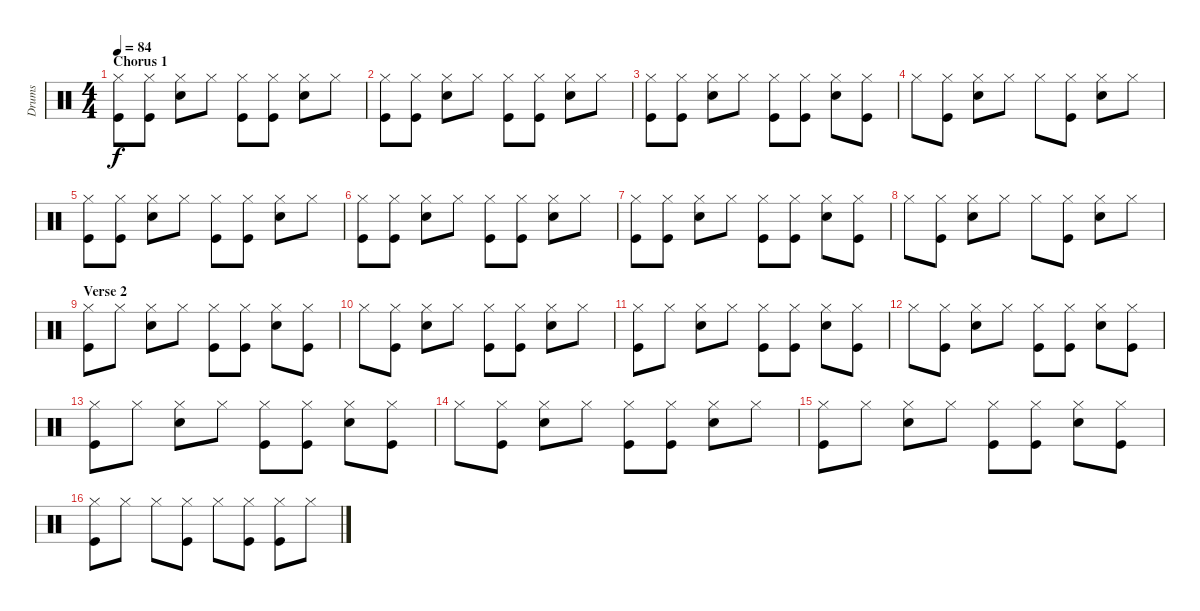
\track ("Drums" "Drums") {instrument percussion}
\staff {score}
\articulation defaults
\ts (4 4)
\section ("" "Chorus 1")
\tempo 84
\clef neutral
\ks c
("Hi-Hat (closed)" "Kick (hit)").8{dy f} ("Hi-Hat (closed)" "Kick (hit)").8 ("Hi-Hat (closed)" "Snare (hit) 2").8 "Hi-Hat (closed)".8 ("Hi-Hat (closed)" "Kick (hit)").8 ("Hi-Hat (closed)" "Kick (hit)").8 ("Hi-Hat (closed)" "Snare (hit) 2").8 "Hi-Hat (closed)".8 |
("Hi-Hat (closed)" "Kick (hit)").8 ("Hi-Hat (closed)" "Kick (hit)").8 ("Hi-Hat (closed)" "Snare (hit) 2").8 "Hi-Hat (closed)".8 ("Hi-Hat (closed)" "Kick (hit)").8 ("Hi-Hat (closed)" "Kick (hit)").8 ("Hi-Hat (closed)" "Snare (hit) 2").8 "Hi-Hat (closed)".8 |
("Hi-Hat (closed)" "Kick (hit)").8 ("Hi-Hat (closed)" "Kick (hit)").8 ("Hi-Hat (closed)" "Snare (hit) 2").8 "Hi-Hat (closed)".8 ("Hi-Hat (closed)" "Kick (hit)").8 ("Hi-Hat (closed)" "Kick (hit)").8 ("Hi-Hat (closed)" "Snare (hit) 2").8 ("Hi-Hat (closed)" "Kick (hit)").8 |
"Hi-Hat (closed)".8 ("Hi-Hat (closed)" "Kick (hit)").8 ("Hi-Hat (closed)" "Snare (hit) 2").8 "Hi-Hat (closed)".8 "Hi-Hat (closed)".8 ("Hi-Hat (closed)" "Kick (hit)").8 ("Hi-Hat (closed)" "Snare (hit) 2").8 "Hi-Hat (closed)".8 |
("Hi-Hat (closed)" "Kick (hit)").8 ("Hi-Hat (closed)" "Kick (hit)").8 ("Hi-Hat (closed)" "Snare (hit) 2").8 "Hi-Hat (closed)".8 ("Hi-Hat (closed)" "Kick (hit)").8 ("Hi-Hat (closed)" "Kick (hit)").8 ("Hi-Hat (closed)" "Snare (hit) 2").8 "Hi-Hat (closed)".8 |
("Hi-Hat (closed)" "Kick (hit)").8 ("Hi-Hat (closed)" "Kick (hit)").8 ("Hi-Hat (closed)" "Snare (hit) 2").8 "Hi-Hat (closed)".8 ("Hi-Hat (closed)" "Kick (hit)").8 ("Hi-Hat (closed)" "Kick (hit)").8 ("Hi-Hat (closed)" "Snare (hit) 2").8 "Hi-Hat (closed)".8 |
("Hi-Hat (closed)" "Kick (hit)").8 ("Hi-Hat (closed)" "Kick (hit)").8 ("Hi-Hat (closed)" "Snare (hit) 2").8 "Hi-Hat (closed)".8 ("Hi-Hat (closed)" "Kick (hit)").8 ("Hi-Hat (closed)" "Kick (hit)").8 ("Hi-Hat (closed)" "Snare (hit) 2").8 ("Hi-Hat (closed)" "Kick (hit)").8 |
"Hi-Hat (closed)".8 ("Hi-Hat (closed)" "Kick (hit)").8 ("Hi-Hat (closed)" "Snare (hit) 2").8 "Hi-Hat (closed)".8 "Hi-Hat (closed)".8 ("Hi-Hat (closed)" "Kick (hit)").8 ("Hi-Hat (closed)" "Snare (hit) 2").8 "Hi-Hat (closed)".8 |
\section ("" "Verse 2")
("Hi-Hat (closed)" "Kick (hit)").8 "Hi-Hat (closed)".8 ("Hi-Hat (closed)" "Snare (hit) 2").8 "Hi-Hat (closed)".8 ("Hi-Hat (closed)" "Kick (hit)").8 ("Hi-Hat (closed)" "Kick (hit)").8 ("Hi-Hat (closed)" "Snare (hit) 2").8 ("Hi-Hat (closed)" "Kick (hit)").8 |
"Hi-Hat (closed)".8 ("Hi-Hat (closed)" "Kick (hit)").8 ("Hi-Hat (closed)" "Snare (hit) 2").8 "Hi-Hat (closed)".8 ("Hi-Hat (closed)" "Kick (hit)").8 ("Hi-Hat (closed)" "Kick (hit)").8 ("Hi-Hat (closed)" "Snare (hit) 2").8 "Hi-Hat (closed)".8 |
("Hi-Hat (closed)" "Kick (hit)").8 "Hi-Hat (closed)".8 ("Hi-Hat (closed)" "Snare (hit) 2").8 "Hi-Hat (closed)".8 ("Hi-Hat (closed)" "Kick (hit)").8 ("Hi-Hat (closed)" "Kick (hit)").8 ("Hi-Hat (closed)" "Snare (hit) 2").8 ("Hi-Hat (closed)" "Kick (hit)").8 |
"Hi-Hat (closed)".8 ("Hi-Hat (closed)" "Kick (hit)").8 ("Hi-Hat (closed)" "Snare (hit) 2").8 "Hi-Hat (closed)".8 ("Hi-Hat (closed)" "Kick (hit)").8 ("Hi-Hat (closed)" "Kick (hit)").8 ("Hi-Hat (closed)" "Snare (hit) 2").8 ("Hi-Hat (closed)" "Kick (hit)").8 |
("Hi-Hat (closed)" "Kick (hit)").8 "Hi-Hat (closed)".8 ("Hi-Hat (closed)" "Snare (hit) 2").8 "Hi-Hat (closed)".8 ("Hi-Hat (closed)" "Kick (hit)").8 ("Hi-Hat (closed)" "Kick (hit)").8 ("Hi-Hat (closed)" "Snare (hit) 2").8 ("Hi-Hat (closed)" "Kick (hit)").8 |
"Hi-Hat (closed)".8 ("Hi-Hat (closed)" "Kick (hit)").8 ("Hi-Hat (closed)" "Snare (hit) 2").8 "Hi-Hat (closed)".8 ("Hi-Hat (closed)" "Kick (hit)").8 ("Hi-Hat (closed)" "Kick (hit)").8 ("Hi-Hat (closed)" "Snare (hit) 2").8 "Hi-Hat (closed)".8 |
("Hi-Hat (closed)" "Kick (hit)").8 "Hi-Hat (closed)".8 ("Hi-Hat (closed)" "Snare (hit) 2").8 "Hi-Hat (closed)".8 ("Hi-Hat (closed)" "Kick (hit)").8 ("Hi-Hat (closed)" "Kick (hit)").8 ("Hi-Hat (closed)" "Snare (hit) 2").8 ("Hi-Hat (closed)" "Kick (hit)").8 |
("Hi-Hat (closed)" "Kick (hit)").8 "Hi-Hat (closed)".8 "Hi-Hat (closed)".8 ("Hi-Hat (closed)" "Kick (hit)").8 "Hi-Hat (closed)".8 ("Hi-Hat (closed)" "Kick (hit)").8 ("Hi-Hat (closed)" "Kick (hit)").8 "Hi-Hat (closed)".8
